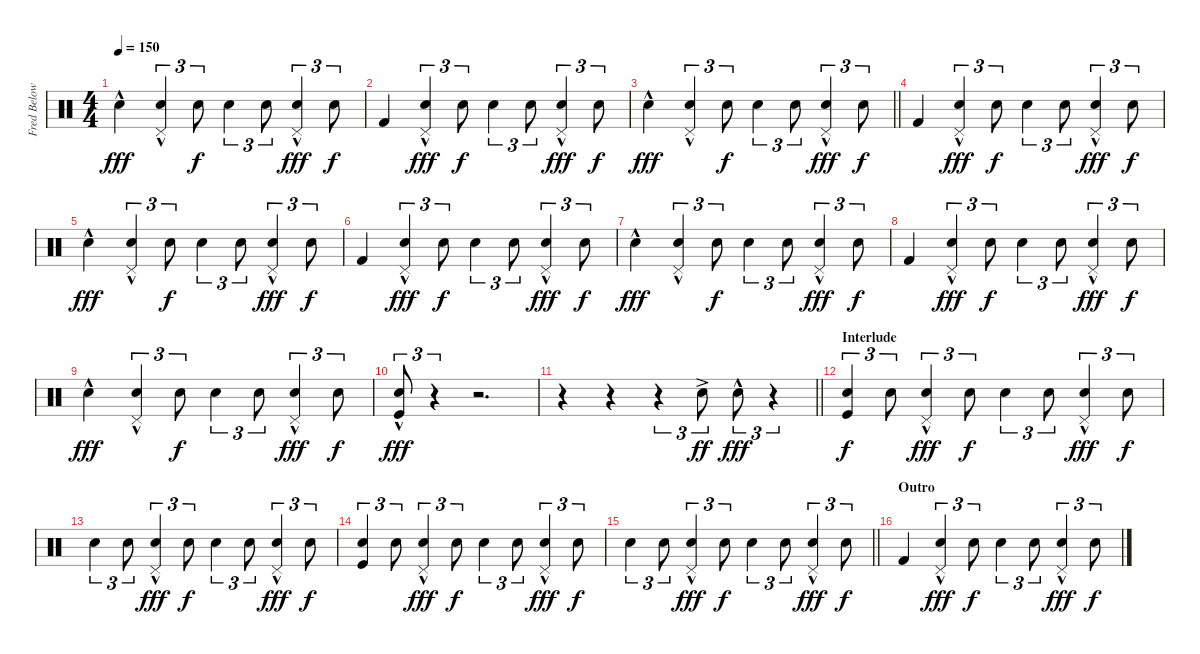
\track ("Fred Below" "Fred Below") {instrument percussion}
\staff {score}
\articulation defaults
\ts (4 4)
\tempo 150
\clef neutral
\ks c "Snare (hit) 2"{hac}.4{dy fff}
("Snare (hit) 2"{hac} "Pedal Hi-Hat (hit)").4{tu (3 2)} "Snare (hit) 2".8{tu (3 2) dy f} "Electric Snare (hit)".4{tu (3 2)} "Snare (hit) 2".8{tu (3 2)} ("Hand Clap (hit)"{hac} "Pedal Hi-Hat (hit)").4{tu (3 2) dy fff} "Snare (hit) 2".8{tu (3 2) dy f} |
"Kick (hit) 2".4 ("Snare (hit) 2"{hac} "Pedal Hi-Hat (hit)").4{tu (3 2) dy fff} "Snare (hit) 2".8{tu (3 2) dy f} "Electric Snare (hit)".4{tu (3 2)} "Snare (hit) 2".8{tu (3 2)} ("Hand Clap (hit)"{hac} "Pedal Hi-Hat (hit)").4{tu (3 2) dy fff} "Snare (hit) 2".8{tu (3 2) dy f} |
\barLineRight lightlight "Snare (hit) 2"{hac}.4{dy fff}
("Snare (hit) 2"{hac} "Pedal Hi-Hat (hit)").4{tu (3 2)} "Snare (hit) 2".8{tu (3 2) dy f} "Electric Snare (hit)".4{tu (3 2)} "Snare (hit) 2".8{tu (3 2)} ("Hand Clap (hit)"{hac} "Pedal Hi-Hat (hit)").4{tu (3 2) dy fff} "Snare (hit) 2".8{tu (3 2) dy f} |
"Kick (hit) 2".4 ("Snare (hit) 2"{hac} "Pedal Hi-Hat (hit)").4{tu (3 2) dy fff} "Snare (hit) 2".8{tu (3 2) dy f} "Electric Snare (hit)".4{tu (3 2)} "Snare (hit) 2".8{tu (3 2)} ("Hand Clap (hit)"{hac} "Pedal Hi-Hat (hit)").4{tu (3 2) dy fff} "Snare (hit) 2".8{tu (3 2) dy f} |
"Snare (hit) 2"{hac}.4{dy fff} ("Snare (hit) 2"{hac} "Pedal Hi-Hat (hit)").4{tu (3 2)} "Snare (hit) 2".8{tu (3 2) dy f} "Electric Snare (hit)".4{tu (3 2)} "Snare (hit) 2".8{tu (3 2)} ("Hand Clap (hit)"{hac} "Pedal Hi-Hat (hit)").4{tu (3 2) dy fff} "Snare (hit) 2".8{tu (3 2) dy f} |
"Kick (hit) 2".4 ("Snare (hit) 2"{hac} "Pedal Hi-Hat (hit)").4{tu (3 2) dy fff} "Snare (hit) 2".8{tu (3 2) dy f} "Electric Snare (hit)".4{tu (3 2)} "Snare (hit) 2".8{tu (3 2)} ("Hand Clap (hit)"{hac} "Pedal Hi-Hat (hit)").4{tu (3 2) dy fff} "Snare (hit) 2".8{tu (3 2) dy f} |
"Snare (hit) 2"{hac}.4{dy fff} ("Snare (hit) 2"{hac} "Pedal Hi-Hat (hit)").4{tu (3 2)} "Snare (hit) 2".8{tu (3 2) dy f} "Electric Snare (hit)".4{tu (3 2)} "Snare (hit) 2".8{tu (3 2)} ("Hand Clap (hit)"{hac} "Pedal Hi-Hat (hit)").4{tu (3 2) dy fff} "Snare (hit) 2".8{tu (3 2) dy f} |
"Kick (hit) 2".4 ("Snare (hit) 2"{hac} "Pedal Hi-Hat (hit)").4{tu (3 2) dy fff} "Snare (hit) 2".8{tu (3 2) dy f} "Electric Snare (hit)".4{tu (3 2)} "Snare (hit) 2".8{tu (3 2)} ("Hand Clap (hit)"{hac} "Pedal Hi-Hat (hit)").4{tu (3 2) dy fff} "Snare (hit) 2".8{tu (3 2) dy f} |
"Snare (hit) 2"{hac}.4{dy fff} ("Snare (hit) 2"{hac} "Pedal Hi-Hat (hit)").4{tu (3 2)} "Snare (hit) 2".8{tu (3 2) dy f} "Electric Snare (hit)".4{tu (3 2)} "Snare (hit) 2".8{tu (3 2)} ("Hand Clap (hit)"{hac} "Pedal Hi-Hat (hit)").4{tu (3 2) dy fff} "Snare (hit) 2".8{tu (3 2) dy f} |
("Hand Clap (hit)"{hac} "Kick (hit)").8{tu (3 2) dy fff} r.4{tu (3 2)} r.2{d} |
\barLineRight lightlight
r.4 r.4 r.4{tu (3 2)} "Snare (hit) 2"{ac}.8{tu (3 2) dy ff} "Hand Clap (hit)"{hac}.8{tu (3 2) dy fff} r.4{tu (3 2)} |
\section ("" "Interlude")
("Snare (hit) 2" "Kick (hit)").4{tu (3 2) dy f} "Snare (hit) 2".8{tu (3 2)} ("Snare (hit) 2"{hac} "Pedal Hi-Hat (hit)").4{tu (3 2) dy fff} "Snare (hit) 2".8{tu (3 2) dy f} "Snare (hit) 2".4{tu (3 2)} "Snare (hit) 2".8{tu (3 2)} ("Hand Clap (hit)"{hac} "Pedal Hi-Hat (hit)").4{tu (3 2) dy fff} "Snare (hit) 2".8{tu (3 2) dy f} |
"Snare (hit) 2".4{tu (3 2)} "Snare (hit) 2".8{tu (3 2)} ("Snare (hit) 2"{hac} "Pedal Hi-Hat (hit)").4{tu (3 2) dy fff} "Snare (hit) 2".8{tu (3 2) dy f} "Snare (hit) 2".4{tu (3 2)} "Snare (hit) 2".8{tu (3 2)} ("Hand Clap (hit)"{hac} "Pedal Hi-Hat (hit)").4{tu (3 2) dy fff} "Snare (hit) 2".8{tu (3 2) dy f} |
("Snare (hit) 2" "Kick (hit)").4{tu (3 2)} "Snare (hit) 2".8{tu (3 2)} ("Snare (hit) 2"{hac} "Pedal Hi-Hat (hit)").4{tu (3 2) dy fff} "Snare (hit) 2".8{tu (3 2) dy f} "Snare (hit) 2".4{tu (3 2)} "Snare (hit) 2".8{tu (3 2)} ("Hand Clap (hit)"{hac} "Pedal Hi-Hat (hit)").4{tu (3 2) dy fff} "Snare (hit) 2".8{tu (3 2) dy f} |
\barLineRight lightlight "Snare (hit) 2".4{tu (3 2)} "Snare (hit) 2".8{tu (3 2)}
("Snare (hit) 2"{hac} "Pedal Hi-Hat (hit)").4{tu (3 2) dy fff} "Snare (hit) 2".8{tu (3 2) dy f} "Snare (hit) 2".4{tu (3 2)} "Snare (hit) 2".8{tu (3 2)} ("Hand Clap (hit)"{hac} "Pedal Hi-Hat (hit)").4{tu (3 2) dy fff} "Snare (hit) 2".8{tu (3 2) dy f} |
\section ("" "Outro")
"Kick (hit) 2".4{volume 10} ("Snare (hit) 2"{hac} "Pedal Hi-Hat (hit)").4{tu (3 2) dy fff} "Snare (hit) 2".8{tu (3 2) dy f} "Electric Snare (hit)".4{tu (3 2)} "Snare (hit) 2".8{tu (3 2)} ("Hand Clap (hit)"{hac} "Pedal Hi-Hat (hit)").4{tu (3 2) dy fff} "Snare (hit) 2".8{tu (3 2) dy f}
